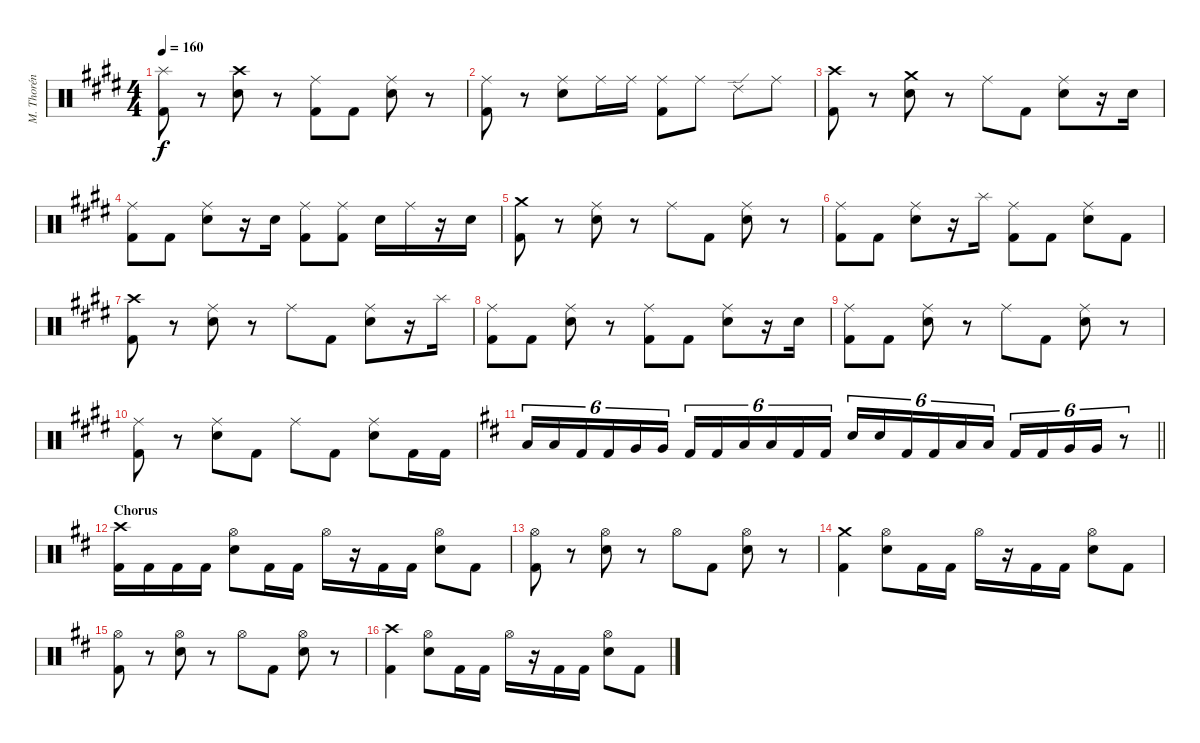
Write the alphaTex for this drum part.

\track ("M. Thorén (Drums)" "M. Thorén ") {instrument percussion}
\staff {score}
\articulation defaults
\ts (4 4)
\tempo 160
\clef neutral
\ks c#minor
("Splash (hit)" "Kick (hit) 2").8{dy f} r.8 ("Crash high (hit)" "Electric Snare (hit)").8 r.8 ("Ride (middle)" "Kick (hit) 2").8 "Kick (hit) 2".8 ("Ride (middle)" "Electric Snare (hit)").8 r.8 |
("Ride (middle)" "Kick (hit) 2").8 r.8 ("Ride (middle)" "Electric Snare (hit)").8 "Ride (middle)".16 "Ride (middle)".16 ("Ride (middle)" "Kick (hit) 2").8 "Ride (middle)".8 "Ride (edge) 2".8 "Ride (middle)".8 |
("Crash high (hit)" "Kick (hit) 2").8 r.8 ("Crash medium (hit)" "Electric Snare (hit)").8 r.8 "Ride (middle)".8 "Kick (hit) 2".8 ("Ride (middle)" "Electric Snare (hit)").8 r.16 "Electric Snare (hit)".16 |
("Ride (middle)" "Kick (hit) 2").8 "Kick (hit) 2".8 ("Ride (middle)" "Electric Snare (hit)").8 r.16 "Electric Snare (hit)".16 ("Ride (middle)" "Kick (hit) 2").8 ("Ride (middle)" "Kick (hit) 2").8 "Electric Snare (hit)".16 "Ride (middle)".16 r.16 "Electric Snare (hit)".16 |
("Crash medium (hit)" "Kick (hit) 2").8 r.8 ("Ride (middle)" "Electric Snare (hit)").8 r.8 "Ride (middle)".8 "Kick (hit) 2".8 ("Ride (middle)" "Electric Snare (hit)").8 r.8 |
("Ride (middle)" "Kick (hit) 2").8 "Kick (hit) 2".8 ("Ride (middle)" "Electric Snare (hit)").8 r.16 "Splash (hit)".16 ("Ride (middle)" "Kick (hit) 2").8 "Kick (hit) 2".8 ("Ride (middle)" "Electric Snare (hit)").8 "Kick (hit) 2".8 |
("Crash high (hit)" "Kick (hit) 2").8 r.8 ("Ride (middle)" "Electric Snare (hit)").8 r.8 "Ride (middle)".8 "Kick (hit) 2".8 ("Ride (middle)" "Electric Snare (hit)").8 r.16 "Splash (hit)".16 |
("Ride (middle)" "Kick (hit) 2").8 "Kick (hit) 2".8 ("Ride (middle)" "Electric Snare (hit)").8 r.8 ("Ride (middle)" "Kick (hit) 2").8 "Kick (hit) 2".8 ("Ride (middle)" "Electric Snare (hit)").8 r.16 "Electric Snare (hit)".16 |
("Ride (middle)" "Kick (hit) 2").8 "Kick (hit) 2".8 ("Ride (middle)" "Electric Snare (hit)").8 r.8 "Ride (middle)".8 "Kick (hit) 2".8 ("Ride (middle)" "Electric Snare (hit)").8 r.8 |
("Ride (middle)" "Kick (hit) 2").8 r.8 ("Ride (middle)" "Electric Snare (hit)").8 "Kick (hit) 2".8 "Ride (middle)".8 "Kick (hit) 2".8 ("Ride (middle)" "Electric Snare (hit)").8 "Kick (hit) 2".16 "Kick (hit) 2".16 |
\barLineRight lightlight
\ks bminor "Low Tom (hit)".16{tu (6 4)} "Low Tom (hit)".16{tu (6 4)} "Kick (hit) 2".16{tu (6 4)} "Kick (hit) 2".16{tu (6 4)} "Very Low Tom (hit)".16{tu (6 4)} "Very Low Tom (hit)".16{tu (6 4)} "Kick (hit) 2".16{tu (6 4)} "Kick (hit) 2".16{tu (6 4)} "Low Floor Tom (hit)".16{tu (6 4)} "Low Floor Tom (hit)".16{tu (6 4)} "Kick (hit) 2".16{tu (6 4)} "Kick (hit) 2".16{tu (6 4)} "Electric Snare (hit)".16{tu (6 4)} "Electric Snare (hit)".16{tu (6 4)} "Kick (hit) 2".16{tu (6 4)} "Kick (hit) 2".16{tu (6 4)} "Low Floor Tom (hit)".16{tu (6 4)} "Low Floor Tom (hit)".16{tu (6 4)} "Kick (hit) 2".16{tu (6 4)} "Kick (hit) 2".16{tu (6 4)} "Very Low Tom (hit)".16{tu (6 4)} "Very Low Tom (hit)".16{tu (6 4)}
r.8{tu (6 4)} |
\section ("" "Chorus")
("Crash high (hit)" "Kick (hit) 2").16 "Kick (hit) 2".16 "Kick (hit) 2".16 "Kick (hit) 2".16 ("Hi-Hat (open)" "Electric Snare (hit)").8 "Kick (hit) 2".16 "Kick (hit) 2".16 "Hi-Hat (open)".16 r.16 "Kick (hit) 2".16 "Kick (hit) 2".16 ("Hi-Hat (open)" "Electric Snare (hit)").8 "Kick (hit) 2".8 |
("Hi-Hat (open)" "Kick (hit) 2").8 r.8 ("Hi-Hat (open)" "Electric Snare (hit)").8 r.8 "Hi-Hat (open)".8 "Kick (hit) 2".8 ("Hi-Hat (open)" "Electric Snare (hit)").8 r.8 |
("Crash medium (hit)" "Kick (hit) 2").4 ("Hi-Hat (open)" "Electric Snare (hit)").8 "Kick (hit) 2".16 "Kick (hit) 2".16 "Hi-Hat (open)".16 r.16 "Kick (hit) 2".16 "Kick (hit) 2".16 ("Hi-Hat (open)" "Electric Snare (hit)").8 "Kick (hit) 2".8 |
("Hi-Hat (open)" "Kick (hit) 2").8 r.8 ("Hi-Hat (open)" "Electric Snare (hit)").8 r.8 "Hi-Hat (open)".8 "Kick (hit) 2".8 ("Hi-Hat (open)" "Electric Snare (hit)").8 r.8 |
("Crash high (hit)" "Kick (hit) 2").4 ("Hi-Hat (open)" "Electric Snare (hit)").8 "Kick (hit) 2".16 "Kick (hit) 2".16 "Hi-Hat (open)".16 r.16 "Kick (hit) 2".16 "Kick (hit) 2".16 ("Hi-Hat (open)" "Electric Snare (hit)").8 "Kick (hit) 2".8
